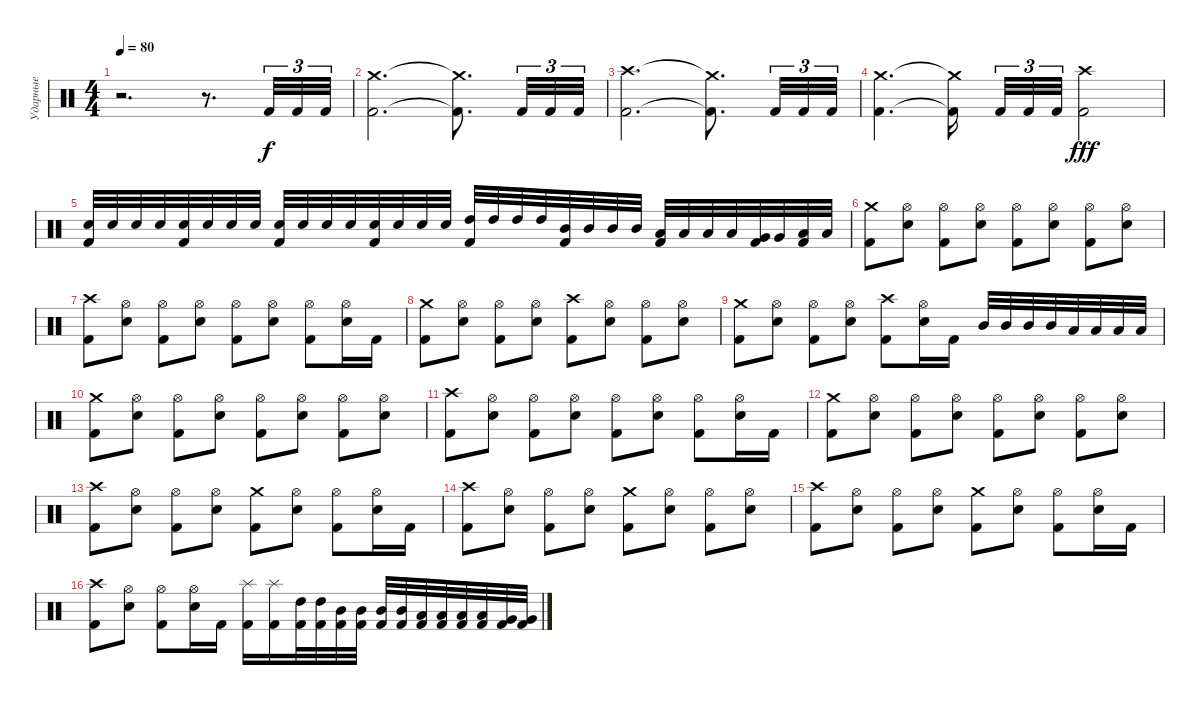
\track ("Ударные" "Ударные") {instrument percussion}
\staff {score}
\articulation defaults
\ts (4 4)
\tempo 80
\clef neutral
\ks c
r.2{d dy f} r.8{d} "Kick (hit) 2".32{tu (3 2)} "Kick (hit) 2".32{tu (3 2)} "Kick (hit) 2".32{tu (3 2)} |
("Crash medium (hit)" "Kick (hit) 2").2{d} ("Crash medium (hit)"{t} "Kick (hit) 2"{t}).8{d} "Kick (hit) 2".32{tu (3 2)} "Kick (hit) 2".32{tu (3 2)} "Kick (hit) 2".32{tu (3 2)} |
("Crash high (hit)" "Kick (hit) 2").2{d} ("Crash medium (hit)"{t} "Kick (hit) 2"{t}).8{d} "Kick (hit) 2".32{tu (3 2)} "Kick (hit) 2".32{tu (3 2)} "Kick (hit) 2".32{tu (3 2)} |
("Crash medium (hit)" "Kick (hit) 2").4{d} ("Crash medium (hit)"{t} "Kick (hit) 2"{t}).16{beam splitsecondary} "Kick (hit) 2".32{tu (3 2)} "Kick (hit) 2".32{tu (3 2)} "Kick (hit) 2".32{tu (3 2)} ("Crash high (hit)" "Kick (hit) 2").2{dy fff} |
("Electric Snare (hit)" "Kick (hit) 2").32 "Electric Snare (hit)".32 "Electric Snare (hit)".32 "Electric Snare (hit)".32 ("Electric Snare (hit)" "Kick (hit) 2").32 "Electric Snare (hit)".32 "Electric Snare (hit)".32 "Electric Snare (hit)".32 ("Electric Snare (hit)" "Kick (hit) 2").32 "Electric Snare (hit)".32 "Electric Snare (hit)".32 "Electric Snare (hit)".32 ("Electric Snare (hit)" "Kick (hit) 2").32 "Electric Snare (hit)".32 "Electric Snare (hit)".32 "Electric Snare (hit)".32 ("Kick (hit) 2" "High Tom (hit)").32 "High Tom (hit)".32 "High Tom (hit)".32 "High Tom (hit)".32 ("Kick (hit) 2" "Mid Tom (hit)").32 "Mid Tom (hit)".32 "Mid Tom (hit)".32 "Mid Tom (hit)".32 ("Kick (hit) 2" "Low Tom (hit)").32 "Low Tom (hit)".32 "Low Tom (hit)".32 "Low Tom (hit)".32 ("Kick (hit) 2" "Very Low Tom (hit)").32 "Very Low Tom (hit)".32 ("Kick (hit) 2" "Low Floor Tom (hit)").32 "Low Floor Tom (hit)".32 |
("Crash medium (hit)" "Kick (hit) 2").8 ("Hi-Hat (open)" "Electric Snare (hit)").8 ("Hi-Hat (open)" "Kick (hit) 2").8 ("Hi-Hat (open)" "Electric Snare (hit)").8 ("Hi-Hat (open)" "Kick (hit) 2").8 ("Hi-Hat (open)" "Electric Snare (hit)").8 ("Hi-Hat (open)" "Kick (hit) 2").8 ("Hi-Hat (open)" "Electric Snare (hit)").8 |
("Crash high (hit)" "Kick (hit) 2").8 ("Hi-Hat (open)" "Electric Snare (hit)").8 ("Hi-Hat (open)" "Kick (hit) 2").8 ("Hi-Hat (open)" "Electric Snare (hit)").8 ("Hi-Hat (open)" "Kick (hit) 2").8 ("Hi-Hat (open)" "Electric Snare (hit)").8 ("Hi-Hat (open)" "Kick (hit) 2").8 ("Hi-Hat (open)" "Electric Snare (hit)").16 "Kick (hit) 2".16 |
("Crash medium (hit)" "Kick (hit) 2").8 ("Hi-Hat (open)" "Electric Snare (hit)").8 ("Hi-Hat (open)" "Kick (hit) 2").8 ("Hi-Hat (open)" "Electric Snare (hit)").8 ("Crash high (hit)" "Kick (hit) 2").8 ("Hi-Hat (open)" "Electric Snare (hit)").8 ("Hi-Hat (open)" "Kick (hit) 2").8 ("Hi-Hat (open)" "Electric Snare (hit)").8 |
("Crash medium (hit)" "Kick (hit) 2").8 ("Hi-Hat (open)" "Electric Snare (hit)").8 ("Hi-Hat (open)" "Kick (hit) 2").8 ("Hi-Hat (open)" "Electric Snare (hit)").8 ("Crash high (hit)" "Kick (hit) 2").8 ("Hi-Hat (open)" "Electric Snare (hit)").16 "Kick (hit) 2".16 "Mid Tom (hit)".32 "Mid Tom (hit)".32 "Mid Tom (hit)".32 "Mid Tom (hit)".32 "Low Tom (hit)".32 "Low Tom (hit)".32 "Low Tom (hit)".32 "Low Tom (hit)".32 |
("Crash medium (hit)" "Kick (hit) 2").8 ("Hi-Hat (open)" "Electric Snare (hit)").8 ("Hi-Hat (open)" "Kick (hit) 2").8 ("Hi-Hat (open)" "Electric Snare (hit)").8 ("Hi-Hat (open)" "Kick (hit) 2").8 ("Hi-Hat (open)" "Electric Snare (hit)").8 ("Hi-Hat (open)" "Kick (hit) 2").8 ("Hi-Hat (open)" "Electric Snare (hit)").8 |
("Crash high (hit)" "Kick (hit) 2").8 ("Hi-Hat (open)" "Electric Snare (hit)").8 ("Hi-Hat (open)" "Kick (hit) 2").8 ("Hi-Hat (open)" "Electric Snare (hit)").8 ("Hi-Hat (open)" "Kick (hit) 2").8 ("Hi-Hat (open)" "Electric Snare (hit)").8 ("Hi-Hat (open)" "Kick (hit) 2").8 ("Hi-Hat (open)" "Electric Snare (hit)").16 "Kick (hit) 2".16 |
("Crash medium (hit)" "Kick (hit) 2").8 ("Hi-Hat (open)" "Electric Snare (hit)").8 ("Hi-Hat (open)" "Kick (hit) 2").8 ("Hi-Hat (open)" "Electric Snare (hit)").8 ("Hi-Hat (open)" "Kick (hit) 2").8 ("Hi-Hat (open)" "Electric Snare (hit)").8 ("Hi-Hat (open)" "Kick (hit) 2").8 ("Hi-Hat (open)" "Electric Snare (hit)").8 |
("Crash high (hit)" "Kick (hit) 2").8 ("Hi-Hat (open)" "Electric Snare (hit)").8 ("Hi-Hat (open)" "Kick (hit) 2").8 ("Hi-Hat (open)" "Electric Snare (hit)").8 ("Crash medium (hit)" "Kick (hit) 2").8 ("Hi-Hat (open)" "Electric Snare (hit)").8 ("Hi-Hat (open)" "Kick (hit) 2").8 ("Hi-Hat (open)" "Electric Snare (hit)").16 "Kick (hit) 2".16 |
("Crash high (hit)" "Kick (hit) 2").8 ("Hi-Hat (open)" "Electric Snare (hit)").8 ("Hi-Hat (open)" "Kick (hit) 2").8 ("Hi-Hat (open)" "Electric Snare (hit)").8 ("Crash medium (hit)" "Kick (hit) 2").8 ("Hi-Hat (open)" "Electric Snare (hit)").8 ("Hi-Hat (open)" "Kick (hit) 2").8 ("Hi-Hat (open)" "Electric Snare (hit)").8 |
("Crash high (hit)" "Kick (hit) 2").8 ("Hi-Hat (open)" "Electric Snare (hit)").8 ("Hi-Hat (open)" "Kick (hit) 2").8 ("Hi-Hat (open)" "Electric Snare (hit)").8 ("Crash medium (hit)" "Kick (hit) 2").8 ("Hi-Hat (open)" "Electric Snare (hit)").8 ("Hi-Hat (open)" "Kick (hit) 2").8 ("Hi-Hat (open)" "Electric Snare (hit)").16 "Kick (hit) 2".16 |
("Crash high (hit)" "Kick (hit) 2").8 ("Hi-Hat (open)" "Electric Snare (hit)").8 ("Hi-Hat (open)" "Kick (hit) 2").8 ("Hi-Hat (open)" "Electric Snare (hit)").16 "Kick (hit) 2".16 ("Splash (hit)" "Kick (hit) 2").16 ("Splash (hit)" "Kick (hit) 2").16 ("High Tom (hit)" "Kick (hit) 2").32 ("High Tom (hit)" "Kick (hit) 2").32 ("Mid Tom (hit)" "Kick (hit) 2").32 ("Mid Tom (hit)" "Kick (hit) 2").32 ("Mid Tom (hit)" "Kick (hit) 2").32 ("Mid Tom (hit)" "Kick (hit) 2").32 ("Low Tom (hit)" "Kick (hit) 2").32 ("Low Tom (hit)" "Kick (hit) 2").32 ("Low Tom (hit)" "Kick (hit) 2").32 ("Low Tom (hit)" "Kick (hit) 2").32 ("Very Low Tom (hit)" "Kick (hit) 2").32 ("Very Low Tom (hit)" "Kick (hit) 2").32
